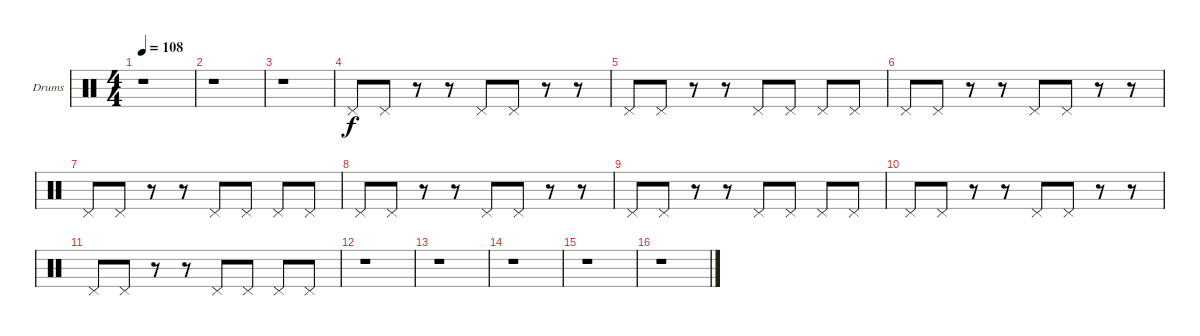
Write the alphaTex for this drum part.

\bracketExtendMode groupsimilarinstruments
\firstSystemTrackNameOrientation horizontal
\otherSystemsTrackNameOrientation horizontal
\track ("Drumkit" "Drums") {instrument percussion}
\staff {score}
\articulation defaults
\ts (4 4)
\tempo 108
\clef neutral
\ks c
r.1{dy mf} |
r.1 |
r.1 |
"Pedal Hi-Hat (hit)".8{dy f} "Pedal Hi-Hat (hit)".8 r.8 r.8 "Pedal Hi-Hat (hit)".8 "Pedal Hi-Hat (hit)".8 r.8 r.8 |
"Pedal Hi-Hat (hit)".8 "Pedal Hi-Hat (hit)".8 r.8 r.8 "Pedal Hi-Hat (hit)".8 "Pedal Hi-Hat (hit)".8 "Pedal Hi-Hat (hit)".8 "Pedal Hi-Hat (hit)".8 |
"Pedal Hi-Hat (hit)".8 "Pedal Hi-Hat (hit)".8 r.8 r.8 "Pedal Hi-Hat (hit)".8 "Pedal Hi-Hat (hit)".8 r.8 r.8 |
"Pedal Hi-Hat (hit)".8 "Pedal Hi-Hat (hit)".8 r.8 r.8 "Pedal Hi-Hat (hit)".8 "Pedal Hi-Hat (hit)".8 "Pedal Hi-Hat (hit)".8 "Pedal Hi-Hat (hit)".8 |
"Pedal Hi-Hat (hit)".8 "Pedal Hi-Hat (hit)".8 r.8 r.8 "Pedal Hi-Hat (hit)".8 "Pedal Hi-Hat (hit)".8 r.8 r.8 |
"Pedal Hi-Hat (hit)".8 "Pedal Hi-Hat (hit)".8 r.8 r.8 "Pedal Hi-Hat (hit)".8 "Pedal Hi-Hat (hit)".8 "Pedal Hi-Hat (hit)".8 "Pedal Hi-Hat (hit)".8 |
"Pedal Hi-Hat (hit)".8 "Pedal Hi-Hat (hit)".8 r.8 r.8 "Pedal Hi-Hat (hit)".8 "Pedal Hi-Hat (hit)".8 r.8 r.8 |
"Pedal Hi-Hat (hit)".8 "Pedal Hi-Hat (hit)".8 r.8 r.8 "Pedal Hi-Hat (hit)".8 "Pedal Hi-Hat (hit)".8 "Pedal Hi-Hat (hit)".8 "Pedal Hi-Hat (hit)".8 |
r.1 |
r.1 |
r.1 |
r.1 |
r.1
